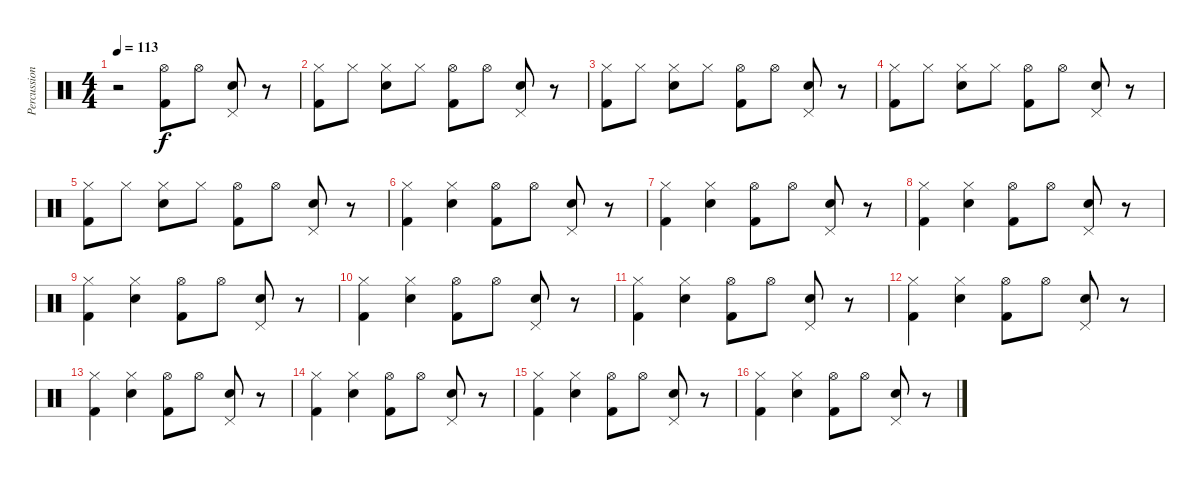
\track ("Percussion" "Percussion") {instrument percussion bank 3}
\staff {score}
\articulation defaults
\ts (4 4)
\tempo 113
\clef neutral
\ks c
r.2{dy f} ("Hi-Hat (open)" "Kick (hit) 2").8 "Hi-Hat (open)".8 ("Pedal Hi-Hat (hit)" "Snare (hit) 2").8 r.8 |
("Hi-Hat (closed)" "Kick (hit) 2").8 "Hi-Hat (closed)".8 ("Hi-Hat (closed)" "Snare (hit) 2").8 "Hi-Hat (closed)".8 ("Hi-Hat (open)" "Kick (hit) 2").8 "Hi-Hat (open)".8 ("Pedal Hi-Hat (hit)" "Snare (hit) 2").8 r.8 |
("Hi-Hat (closed)" "Kick (hit) 2").8 "Hi-Hat (closed)".8 ("Hi-Hat (closed)" "Snare (hit) 2").8 "Hi-Hat (closed)".8 ("Hi-Hat (open)" "Kick (hit) 2").8 "Hi-Hat (open)".8 ("Pedal Hi-Hat (hit)" "Snare (hit) 2").8 r.8 |
("Hi-Hat (closed)" "Kick (hit) 2").8 "Hi-Hat (closed)".8 ("Hi-Hat (closed)" "Snare (hit) 2").8 "Hi-Hat (closed)".8 ("Hi-Hat (open)" "Kick (hit) 2").8 "Hi-Hat (open)".8 ("Pedal Hi-Hat (hit)" "Snare (hit) 2").8 r.8 |
("Hi-Hat (closed)" "Kick (hit) 2").8 "Hi-Hat (closed)".8 ("Hi-Hat (closed)" "Snare (hit) 2").8 "Hi-Hat (closed)".8 ("Hi-Hat (open)" "Kick (hit) 2").8 "Hi-Hat (open)".8 ("Pedal Hi-Hat (hit)" "Snare (hit) 2").8 r.8 |
("Hi-Hat (closed)" "Kick (hit) 2").4 ("Hi-Hat (closed)" "Snare (hit) 2").4 ("Hi-Hat (open)" "Kick (hit) 2").8 "Hi-Hat (open)".8 ("Pedal Hi-Hat (hit)" "Snare (hit) 2").8 r.8 |
("Hi-Hat (closed)" "Kick (hit) 2").4 ("Hi-Hat (closed)" "Snare (hit) 2").4 ("Hi-Hat (open)" "Kick (hit) 2").8 "Hi-Hat (open)".8 ("Pedal Hi-Hat (hit)" "Snare (hit) 2").8 r.8 |
("Hi-Hat (closed)" "Kick (hit) 2").4 ("Hi-Hat (closed)" "Snare (hit) 2").4 ("Hi-Hat (open)" "Kick (hit) 2").8 "Hi-Hat (open)".8 ("Pedal Hi-Hat (hit)" "Snare (hit) 2").8 r.8 |
("Hi-Hat (closed)" "Kick (hit) 2").4 ("Hi-Hat (closed)" "Snare (hit) 2").4 ("Hi-Hat (open)" "Kick (hit) 2").8 "Hi-Hat (open)".8 ("Pedal Hi-Hat (hit)" "Snare (hit) 2").8 r.8 |
("Hi-Hat (closed)" "Kick (hit) 2").4 ("Hi-Hat (closed)" "Snare (hit) 2").4 ("Hi-Hat (open)" "Kick (hit) 2").8 "Hi-Hat (open)".8 ("Pedal Hi-Hat (hit)" "Snare (hit) 2").8 r.8 |
("Hi-Hat (closed)" "Kick (hit) 2").4 ("Hi-Hat (closed)" "Snare (hit) 2").4 ("Hi-Hat (open)" "Kick (hit) 2").8 "Hi-Hat (open)".8 ("Pedal Hi-Hat (hit)" "Snare (hit) 2").8 r.8 |
("Hi-Hat (closed)" "Kick (hit) 2").4 ("Hi-Hat (closed)" "Snare (hit) 2").4 ("Hi-Hat (open)" "Kick (hit) 2").8 "Hi-Hat (open)".8 ("Pedal Hi-Hat (hit)" "Snare (hit) 2").8 r.8 |
("Hi-Hat (closed)" "Kick (hit) 2").4 ("Hi-Hat (closed)" "Snare (hit) 2").4 ("Hi-Hat (open)" "Kick (hit) 2").8 "Hi-Hat (open)".8 ("Pedal Hi-Hat (hit)" "Snare (hit) 2").8 r.8 |
("Hi-Hat (closed)" "Kick (hit) 2").4 ("Hi-Hat (closed)" "Snare (hit) 2").4 ("Hi-Hat (open)" "Kick (hit) 2").8 "Hi-Hat (open)".8 ("Pedal Hi-Hat (hit)" "Snare (hit) 2").8 r.8 |
("Hi-Hat (closed)" "Kick (hit) 2").4 ("Hi-Hat (closed)" "Snare (hit) 2").4 ("Hi-Hat (open)" "Kick (hit) 2").8 "Hi-Hat (open)".8 ("Pedal Hi-Hat (hit)" "Snare (hit) 2").8 r.8 |
("Hi-Hat (closed)" "Kick (hit) 2").4 ("Hi-Hat (closed)" "Snare (hit) 2").4 ("Hi-Hat (open)" "Kick (hit) 2").8 "Hi-Hat (open)".8 ("Pedal Hi-Hat (hit)" "Snare (hit) 2").8 r.8
